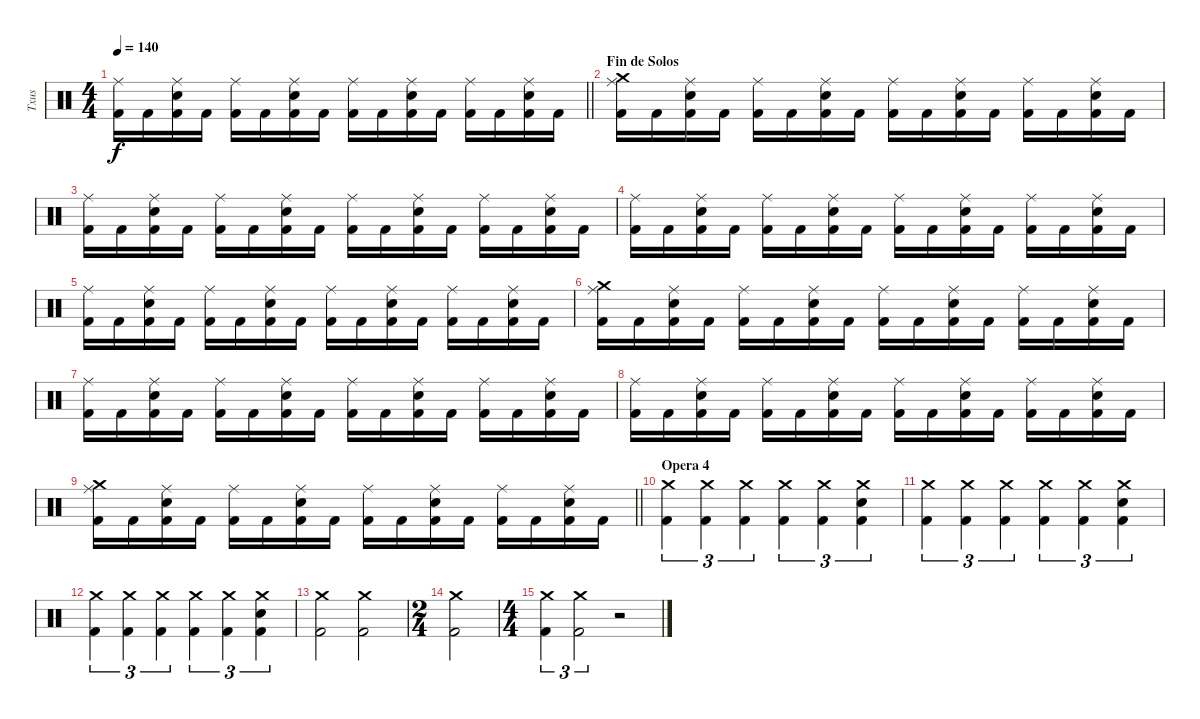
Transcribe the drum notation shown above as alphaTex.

\track ("Txus" "Txus") {instrument percussion}
\staff {score}
\articulation defaults
\ts (4 4)
\tempo 140
\clef neutral
\barLineRight lightlight
\ks c
("Ride (middle)" "Kick (hit) 2").16{dy f} "Kick (hit) 2".16 ("Ride (middle)" "Electric Snare (hit)" "Kick (hit) 2").16 "Kick (hit) 2".16 ("Ride (middle)" "Kick (hit) 2").16 "Kick (hit) 2".16 ("Ride (middle)" "Electric Snare (hit)" "Kick (hit) 2").16 "Kick (hit) 2".16 ("Ride (middle)" "Kick (hit) 2").16 "Kick (hit) 2".16 ("Ride (middle)" "Electric Snare (hit)" "Kick (hit) 2").16 "Kick (hit) 2".16 ("Ride (middle)" "Kick (hit) 2").16 "Kick (hit) 2".16 ("Ride (middle)" "Electric Snare (hit)" "Kick (hit) 2").16 "Kick (hit) 2".16 |
\section ("" "Fin de Solos")
("Crash medium (hit)" "Ride (middle)" "Kick (hit) 2").16 "Kick (hit) 2".16 ("Ride (middle)" "Electric Snare (hit)" "Kick (hit) 2").16 "Kick (hit) 2".16 ("Ride (middle)" "Kick (hit) 2").16 "Kick (hit) 2".16 ("Ride (middle)" "Electric Snare (hit)" "Kick (hit) 2").16 "Kick (hit) 2".16 ("Ride (middle)" "Kick (hit) 2").16 "Kick (hit) 2".16 ("Ride (middle)" "Electric Snare (hit)" "Kick (hit) 2").16 "Kick (hit) 2".16 ("Ride (middle)" "Kick (hit) 2").16 "Kick (hit) 2".16 ("Ride (middle)" "Electric Snare (hit)" "Kick (hit) 2").16 "Kick (hit) 2".16 |
("Ride (middle)" "Kick (hit) 2").16 "Kick (hit) 2".16 ("Ride (middle)" "Electric Snare (hit)" "Kick (hit) 2").16 "Kick (hit) 2".16 ("Ride (middle)" "Kick (hit) 2").16 "Kick (hit) 2".16 ("Ride (middle)" "Electric Snare (hit)" "Kick (hit) 2").16 "Kick (hit) 2".16 ("Ride (middle)" "Kick (hit) 2").16 "Kick (hit) 2".16 ("Ride (middle)" "Electric Snare (hit)" "Kick (hit) 2").16 "Kick (hit) 2".16 ("Ride (middle)" "Kick (hit) 2").16 "Kick (hit) 2".16 ("Ride (middle)" "Electric Snare (hit)" "Kick (hit) 2").16 "Kick (hit) 2".16 |
("Ride (middle)" "Kick (hit) 2").16 "Kick (hit) 2".16 ("Ride (middle)" "Electric Snare (hit)" "Kick (hit) 2").16 "Kick (hit) 2".16 ("Ride (middle)" "Kick (hit) 2").16 "Kick (hit) 2".16 ("Ride (middle)" "Electric Snare (hit)" "Kick (hit) 2").16 "Kick (hit) 2".16 ("Ride (middle)" "Kick (hit) 2").16 "Kick (hit) 2".16 ("Ride (middle)" "Electric Snare (hit)" "Kick (hit) 2").16 "Kick (hit) 2".16 ("Ride (middle)" "Kick (hit) 2").16 "Kick (hit) 2".16 ("Ride (middle)" "Electric Snare (hit)" "Kick (hit) 2").16 "Kick (hit) 2".16 |
("Ride (middle)" "Kick (hit) 2").16 "Kick (hit) 2".16 ("Ride (middle)" "Electric Snare (hit)" "Kick (hit) 2").16 "Kick (hit) 2".16 ("Ride (middle)" "Kick (hit) 2").16 "Kick (hit) 2".16 ("Ride (middle)" "Electric Snare (hit)" "Kick (hit) 2").16 "Kick (hit) 2".16 ("Ride (middle)" "Kick (hit) 2").16 "Kick (hit) 2".16 ("Ride (middle)" "Electric Snare (hit)" "Kick (hit) 2").16 "Kick (hit) 2".16 ("Ride (middle)" "Kick (hit) 2").16 "Kick (hit) 2".16 ("Ride (middle)" "Electric Snare (hit)" "Kick (hit) 2").16 "Kick (hit) 2".16 |
("Crash medium (hit)" "Ride (middle)" "Kick (hit) 2").16 "Kick (hit) 2".16 ("Ride (middle)" "Electric Snare (hit)" "Kick (hit) 2").16 "Kick (hit) 2".16 ("Ride (middle)" "Kick (hit) 2").16 "Kick (hit) 2".16 ("Ride (middle)" "Electric Snare (hit)" "Kick (hit) 2").16 "Kick (hit) 2".16 ("Ride (middle)" "Kick (hit) 2").16 "Kick (hit) 2".16 ("Ride (middle)" "Electric Snare (hit)" "Kick (hit) 2").16 "Kick (hit) 2".16 ("Ride (middle)" "Kick (hit) 2").16 "Kick (hit) 2".16 ("Ride (middle)" "Electric Snare (hit)" "Kick (hit) 2").16 "Kick (hit) 2".16 |
("Ride (middle)" "Kick (hit) 2").16 "Kick (hit) 2".16 ("Ride (middle)" "Electric Snare (hit)" "Kick (hit) 2").16 "Kick (hit) 2".16 ("Ride (middle)" "Kick (hit) 2").16 "Kick (hit) 2".16 ("Ride (middle)" "Electric Snare (hit)" "Kick (hit) 2").16 "Kick (hit) 2".16 ("Ride (middle)" "Kick (hit) 2").16 "Kick (hit) 2".16 ("Ride (middle)" "Electric Snare (hit)" "Kick (hit) 2").16 "Kick (hit) 2".16 ("Ride (middle)" "Kick (hit) 2").16 "Kick (hit) 2".16 ("Ride (middle)" "Electric Snare (hit)" "Kick (hit) 2").16 "Kick (hit) 2".16 |
("Ride (middle)" "Kick (hit) 2").16 "Kick (hit) 2".16 ("Ride (middle)" "Electric Snare (hit)" "Kick (hit) 2").16 "Kick (hit) 2".16 ("Ride (middle)" "Kick (hit) 2").16 "Kick (hit) 2".16 ("Ride (middle)" "Electric Snare (hit)" "Kick (hit) 2").16 "Kick (hit) 2".16 ("Ride (middle)" "Kick (hit) 2").16 "Kick (hit) 2".16 ("Ride (middle)" "Electric Snare (hit)" "Kick (hit) 2").16 "Kick (hit) 2".16 ("Ride (middle)" "Kick (hit) 2").16 "Kick (hit) 2".16 ("Ride (middle)" "Electric Snare (hit)" "Kick (hit) 2").16 "Kick (hit) 2".16 |
\barLineRight lightlight
("Crash medium (hit)" "Ride (middle)" "Kick (hit) 2").16 "Kick (hit) 2".16 ("Ride (middle)" "Electric Snare (hit)" "Kick (hit) 2").16 "Kick (hit) 2".16 ("Ride (middle)" "Kick (hit) 2").16 "Kick (hit) 2".16 ("Ride (middle)" "Electric Snare (hit)" "Kick (hit) 2").16 "Kick (hit) 2".16 ("Ride (middle)" "Kick (hit) 2").16 "Kick (hit) 2".16 ("Ride (middle)" "Electric Snare (hit)" "Kick (hit) 2").16 "Kick (hit) 2".16 ("Ride (middle)" "Kick (hit) 2").16 "Kick (hit) 2".16 ("Ride (middle)" "Electric Snare (hit)" "Kick (hit) 2").16 "Kick (hit) 2".16 |
\section ("" "Opera 4")
("Crash medium (hit)" "Kick (hit) 2").4{tu (3 2)} ("Crash medium (hit)" "Kick (hit) 2").4{tu (3 2)} ("Crash medium (hit)" "Kick (hit) 2").4{tu (3 2)} ("Crash medium (hit)" "Kick (hit) 2").4{tu (3 2)} ("Crash medium (hit)" "Kick (hit) 2").4{tu (3 2)} ("Crash medium (hit)" "Electric Snare (hit)" "Kick (hit) 2").4{tu (3 2)} |
("Crash medium (hit)" "Kick (hit) 2").4{tu (3 2)} ("Crash medium (hit)" "Kick (hit) 2").4{tu (3 2)} ("Crash medium (hit)" "Kick (hit) 2").4{tu (3 2)} ("Crash medium (hit)" "Kick (hit) 2").4{tu (3 2)} ("Crash medium (hit)" "Kick (hit) 2").4{tu (3 2)} ("Crash medium (hit)" "Electric Snare (hit)" "Kick (hit) 2").4{tu (3 2)} |
("Crash medium (hit)" "Kick (hit) 2").4{tu (3 2)} ("Crash medium (hit)" "Kick (hit) 2").4{tu (3 2)} ("Crash medium (hit)" "Kick (hit) 2").4{tu (3 2)} ("Crash medium (hit)" "Kick (hit) 2").4{tu (3 2)} ("Crash medium (hit)" "Kick (hit) 2").4{tu (3 2)} ("Crash medium (hit)" "Electric Snare (hit)" "Kick (hit) 2").4{tu (3 2)} |
("Crash medium (hit)" "Kick (hit) 2").2 ("Crash medium (hit)" "Kick (hit) 2").2 |
\ts (2 4)
("Crash medium (hit)" "Kick (hit) 2").2 |
\ts (4 4)
("Crash medium (hit)" "Kick (hit) 2").4{tu (3 2)} ("Crash medium (hit)" "Kick (hit) 2").2{tu (3 2)} r.2
